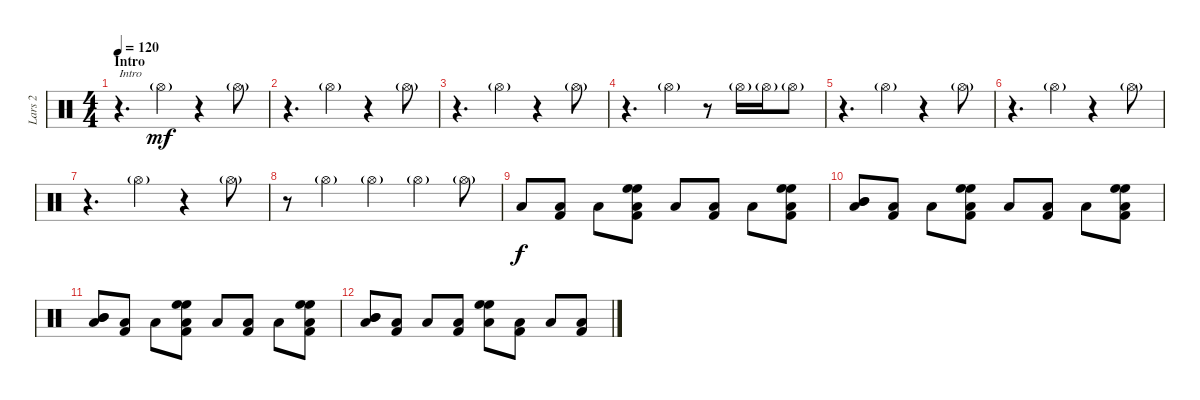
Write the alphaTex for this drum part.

\track ("Lars 2" "Lars 2") {instrument percussion}
\staff {score}
\articulation defaults
\ts (4 4)
\section ("" "Intro")
\tempo 120
\clef neutral
\ks c
r.4{d txt "Intro" dy mf} "Hi-Hat (open)"{g}.4 r.4 "Hi-Hat (open)"{g}.8 |
r.4{d} "Hi-Hat (open)"{g}.4 r.4 "Hi-Hat (open)"{g}.8 |
r.4{d} "Hi-Hat (open)"{g}.4 r.4 "Hi-Hat (open)"{g}.8 |
r.4{d} "Hi-Hat (open)"{g}.4 r.8 "Hi-Hat (open)"{g}.16 "Hi-Hat (open)"{g}.16 "Hi-Hat (open)"{g}.8 |
r.4{d} "Hi-Hat (open)"{g}.4 r.4 "Hi-Hat (open)"{g}.8 |
r.4{d} "Hi-Hat (open)"{g}.4 r.4 "Hi-Hat (open)"{g}.8 |
r.4{d} "Hi-Hat (open)"{g}.4 r.4 "Hi-Hat (open)"{g}.8 |
r.8 "Hi-Hat (open)"{g}.4 "Hi-Hat (open)"{g}.4 "Hi-Hat (open)"{g}.4 "Hi-Hat (open)"{g}.8 |
"Low Tom (hit)".8{dy f} ("Low Tom (hit)" "Kick (hit) 2").8 "Low Tom (hit)".8 ("High Floor Tom (hit)" "Low Tom (hit)" "High Floor Tom (hit)" "Kick (hit) 2").8 "Low Tom (hit)".8 ("Low Tom (hit)" "Kick (hit) 2").8 "Low Tom (hit)".8 ("High Floor Tom (hit)" "Low Tom (hit)" "High Floor Tom (hit)" "Kick (hit) 2").8 |
("Mid Tom (hit)" "Low Tom (hit)" "Mid Tom (hit)").8 ("Low Tom (hit)" "Kick (hit) 2").8 "Low Tom (hit)".8 ("High Floor Tom (hit)" "Low Tom (hit)" "High Floor Tom (hit)" "Kick (hit) 2").8 "Low Tom (hit)".8 ("Low Tom (hit)" "Kick (hit) 2").8 "Low Tom (hit)".8 ("High Floor Tom (hit)" "Low Tom (hit)" "High Floor Tom (hit)" "Kick (hit) 2").8 |
("Mid Tom (hit)" "Low Tom (hit)" "Mid Tom (hit)").8 ("Low Tom (hit)" "Kick (hit) 2").8 "Low Tom (hit)".8 ("High Floor Tom (hit)" "Low Tom (hit)" "High Floor Tom (hit)" "Kick (hit) 2").8 "Low Tom (hit)".8 ("Low Tom (hit)" "Kick (hit) 2").8 "Low Tom (hit)".8 ("High Floor Tom (hit)" "Low Tom (hit)" "High Floor Tom (hit)" "Kick (hit) 2").8 |
("Mid Tom (hit)" "Low Tom (hit)" "Mid Tom (hit)").8 ("Low Tom (hit)" "Kick (hit) 2").8 "Low Tom (hit)".8 ("Low Tom (hit)" "Kick (hit) 2").8 ("High Floor Tom (hit)" "Low Tom (hit)" "High Floor Tom (hit)").8 ("Low Tom (hit)" "Kick (hit) 2").8 "Low Tom (hit)".8 ("Low Tom (hit)" "Kick (hit) 2").8
